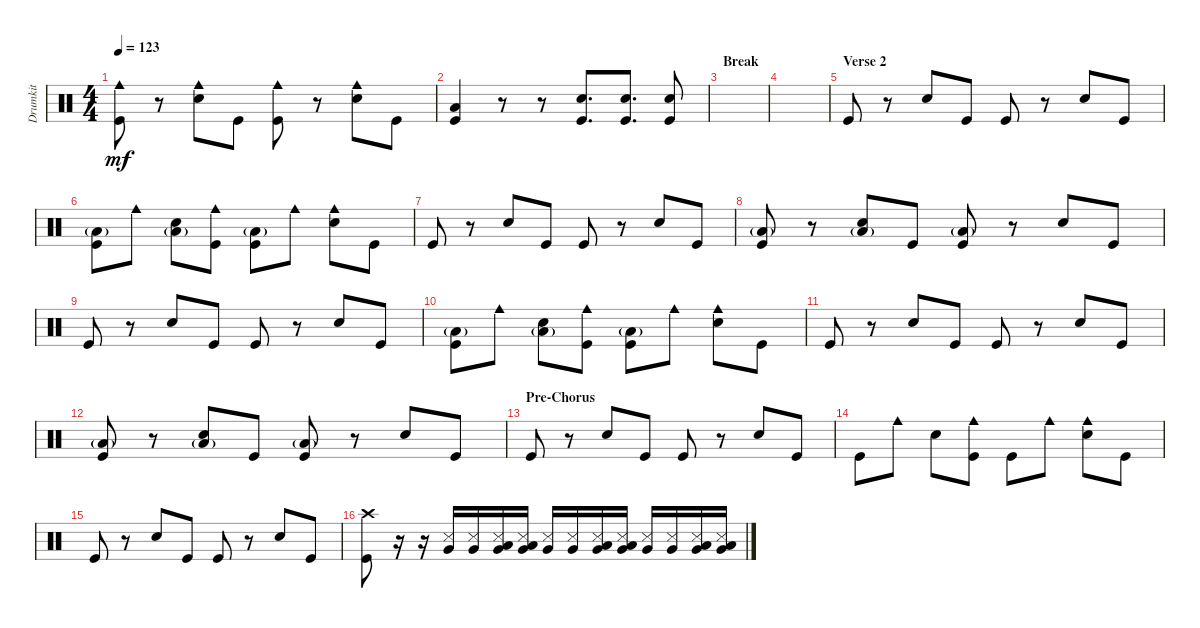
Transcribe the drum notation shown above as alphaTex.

\track ("Drumkit" "Drumkit") {instrument percussion}
\staff {score}
\articulation defaults
\ts (4 4)
\tempo 123
\clef neutral
\ks c
("Kick (hit)" "Cowbell medium (hit)").8{dy mf} r.8 ("Snare (hit) 2" "Cowbell medium (hit)").8 "Kick (hit)".8 ("Kick (hit)" "Cowbell medium (hit)").8 r.8 ("Snare (hit) 2" "Cowbell medium (hit)").8 "Kick (hit)".8 |
("Kick (hit)" "Low Floor Tom (hit)").4 r.8 r.8 ("Kick (hit)" "Snare (hit) 2").8{d} ("Kick (hit)" "Snare (hit) 2").8{d} ("Kick (hit)" "Snare (hit) 2").8 |
\section ("" "Break")
|
|
\section ("" "Verse 2")
"Kick (hit)".8 r.8 "Snare (hit) 2".8 "Kick (hit)".8 "Kick (hit)".8 r.8 "Snare (hit) 2".8 "Kick (hit)".8 |
("Kick (hit)" "Low Floor Tom (hit)"{g}).8 "Cowbell medium (hit)".8 ("Snare (hit) 2" "Low Floor Tom (hit)"{g}).8 ("Kick (hit)" "Cowbell medium (hit)").8 ("Kick (hit)" "Low Floor Tom (hit)"{g}).8 "Cowbell medium (hit)".8 ("Snare (hit) 2" "Cowbell medium (hit)").8 "Kick (hit)".8 |
"Kick (hit)".8 r.8 "Snare (hit) 2".8 "Kick (hit)".8 "Kick (hit)".8 r.8 "Snare (hit) 2".8 "Kick (hit)".8 |
("Kick (hit)" "Low Floor Tom (hit)"{g}).8 r.8 ("Snare (hit) 2" "Low Floor Tom (hit)"{g}).8 "Kick (hit)".8 ("Kick (hit)" "Low Floor Tom (hit)"{g}).8 r.8 "Snare (hit) 2".8 "Kick (hit)".8 |
"Kick (hit)".8 r.8 "Snare (hit) 2".8 "Kick (hit)".8 "Kick (hit)".8 r.8 "Snare (hit) 2".8 "Kick (hit)".8 |
("Kick (hit)" "Low Floor Tom (hit)"{g}).8 "Cowbell medium (hit)".8 ("Snare (hit) 2" "Low Floor Tom (hit)"{g}).8 ("Kick (hit)" "Cowbell medium (hit)").8 ("Kick (hit)" "Low Floor Tom (hit)"{g}).8 "Cowbell medium (hit)".8 ("Snare (hit) 2" "Cowbell medium (hit)").8 "Kick (hit)".8 |
"Kick (hit)".8 r.8 "Snare (hit) 2".8 "Kick (hit)".8 "Kick (hit)".8 r.8 "Snare (hit) 2".8 "Kick (hit)".8 |
("Kick (hit)" "Low Floor Tom (hit)"{g}).8 r.8 ("Snare (hit) 2" "Low Floor Tom (hit)"{g}).8 "Kick (hit)".8 ("Kick (hit)" "Low Floor Tom (hit)"{g}).8 r.8 "Snare (hit) 2".8 "Kick (hit)".8 |
\section ("" "Pre-Chorus")
"Kick (hit)".8 r.8 "Snare (hit) 2".8 "Kick (hit)".8 "Kick (hit)".8 r.8 "Snare (hit) 2".8 "Kick (hit)".8 |
"Kick (hit)".8 "Cowbell medium (hit)".8 "Snare (hit) 2".8 ("Kick (hit)" "Cowbell medium (hit)").8 "Kick (hit)".8 "Cowbell medium (hit)".8 ("Snare (hit) 2" "Cowbell medium (hit)").8 "Kick (hit)".8 |
"Kick (hit)".8 r.8 "Snare (hit) 2".8 "Kick (hit)".8 "Kick (hit)".8 r.8 "Snare (hit) 2".8 "Kick (hit)".8 |
("Crash high (hit)" "Kick (hit)").8 r.16 r.16 ("Snare (side stick) 3" "Very Low Tom (hit)").16 ("Snare (side stick) 3" "Very Low Tom (hit)").16 ("Snare (side stick) 3" "Very Low Tom (hit)" "Low Floor Tom (hit)").16 ("Snare (side stick) 3" "Very Low Tom (hit)" "Low Floor Tom (hit)").16 ("Snare (side stick) 3" "Very Low Tom (hit)").16 ("Snare (side stick) 3" "Very Low Tom (hit)").16 ("Snare (side stick) 3" "Very Low Tom (hit)" "Low Floor Tom (hit)").16 ("Snare (side stick) 3" "Very Low Tom (hit)" "Low Floor Tom (hit)").16 ("Snare (side stick) 3" "Very Low Tom (hit)").16 ("Snare (side stick) 3" "Very Low Tom (hit)").16 ("Snare (side stick) 3" "Very Low Tom (hit)" "Low Floor Tom (hit)").16 ("Snare (side stick) 3" "Very Low Tom (hit)" "Low Floor Tom (hit)").16
